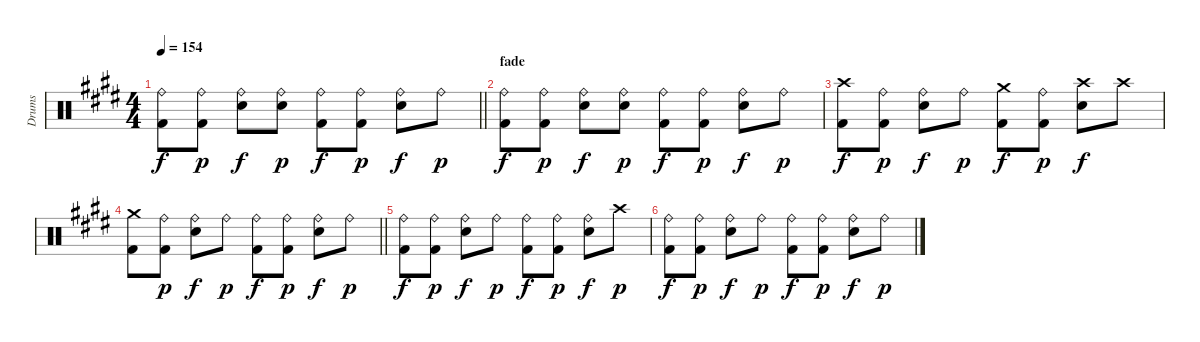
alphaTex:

\track ("Drums" "Drums") {instrument percussion}
\staff {score}
\articulation defaults
\ts (4 4)
\tempo 154
\clef neutral
\barLineRight lightlight
\ks e
("Ride (bell)" "Kick (hit) 2").8{dy f} ("Ride (bell)" "Kick (hit) 2").8{dy p} ("Ride (bell)" "Electric Snare (hit)").8{dy f} ("Ride (bell)" "Electric Snare (hit)").8{dy p} ("Ride (bell)" "Kick (hit) 2").8{dy f} ("Ride (bell)" "Kick (hit) 2").8{dy p} ("Ride (bell)" "Electric Snare (hit)").8{dy f} "Ride (bell)".8{dy p} |
\section ("" "fade")
("Ride (bell)" "Kick (hit) 2").8{dy f} ("Ride (bell)" "Kick (hit) 2").8{dy p} ("Ride (bell)" "Electric Snare (hit)").8{dy f} ("Ride (bell)" "Electric Snare (hit)").8{dy p} ("Ride (bell)" "Kick (hit) 2").8{dy f} ("Ride (bell)" "Kick (hit) 2").8{dy p} ("Ride (bell)" "Electric Snare (hit)").8{dy f} "Ride (bell)".8{dy p} |
("Crash high (hit)" "Kick (hit) 2").8{dy f} ("Ride (bell)" "Kick (hit) 2").8{dy p} ("Ride (bell)" "Electric Snare (hit)").8{dy f} "Ride (bell)".8{dy p} ("Crash medium (hit)" "Kick (hit) 2").8{dy f} ("Ride (bell)" "Kick (hit) 2").8{dy p} ("Crash high (hit)" "Electric Snare (hit)").8{dy f} "Crash high (hit)".8 |
\barLineRight lightlight
("Crash medium (hit)" "Kick (hit) 2").8 ("Ride (bell)" "Kick (hit) 2").8{dy p} ("Ride (bell)" "Electric Snare (hit)").8{dy f} "Ride (bell)".8{dy p} ("Ride (bell)" "Kick (hit) 2").8{dy f} ("Ride (bell)" "Kick (hit) 2").8{dy p} ("Ride (bell)" "Electric Snare (hit)").8{dy f} "Ride (bell)".8{dy p} |
("Ride (bell)" "Kick (hit) 2").8{dy f} ("Ride (bell)" "Kick (hit) 2").8{dy p} ("Ride (bell)" "Electric Snare (hit)").8{dy f} "Ride (bell)".8{dy p} ("Ride (bell)" "Kick (hit) 2").8{dy f} ("Ride (bell)" "Kick (hit) 2").8{dy p} ("Ride (bell)" "Electric Snare (hit)").8{dy f} "Crash high (hit)".8{dy p} |
("Ride (bell)" "Kick (hit) 2").8{dy f} ("Ride (bell)" "Kick (hit) 2").8{dy p} ("Ride (bell)" "Electric Snare (hit)").8{dy f} "Ride (bell)".8{dy p} ("Ride (bell)" "Kick (hit) 2").8{dy f} ("Ride (bell)" "Kick (hit) 2").8{dy p} ("Ride (bell)" "Electric Snare (hit)").8{dy f} "Ride (bell)".8{dy p}
